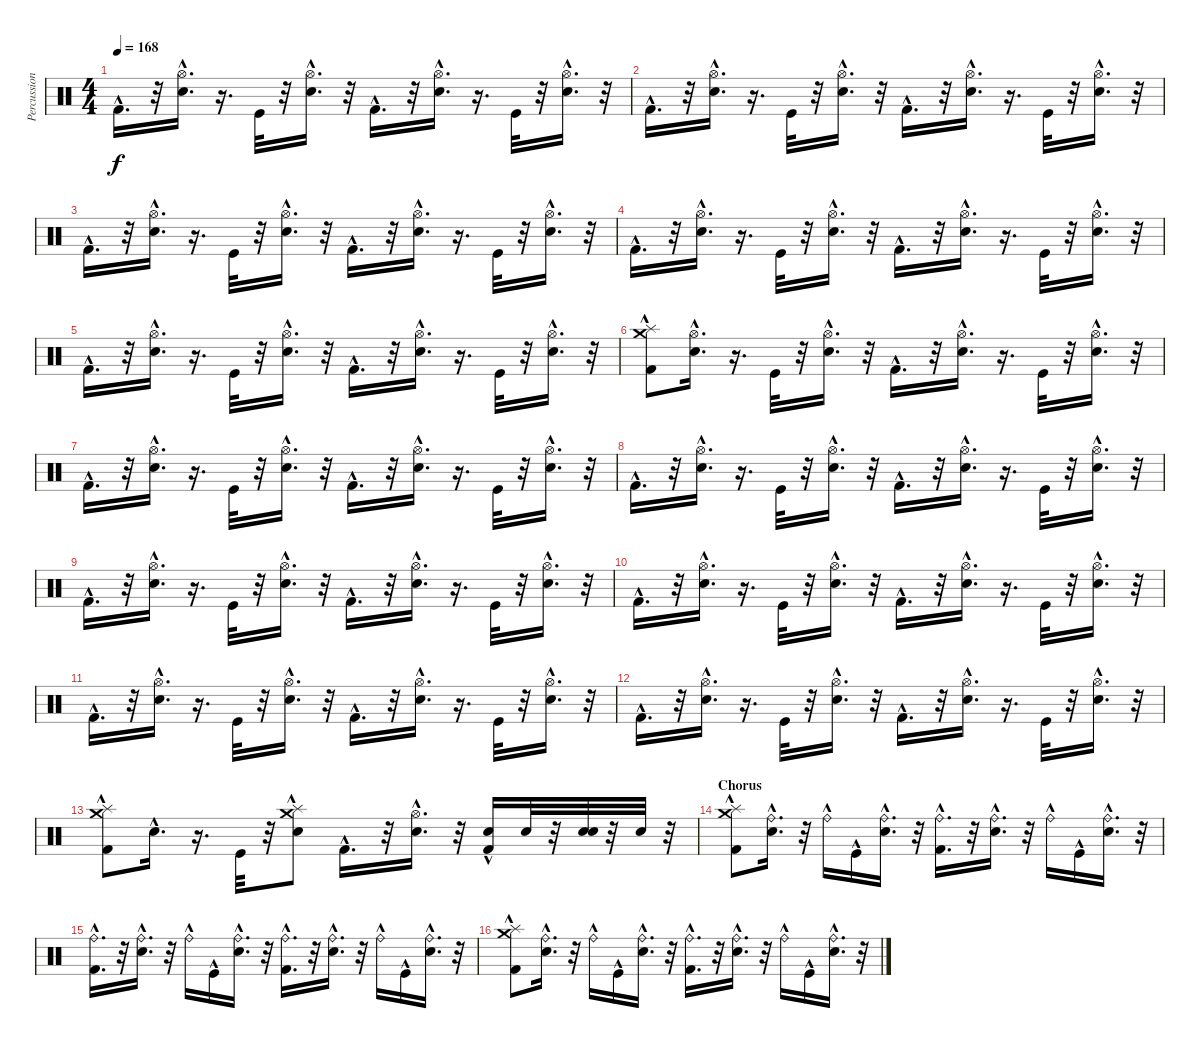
\track ("Percussion" "Percussion") {instrument percussion}
\staff {score}
\articulation defaults
\ts (4 4)
\tempo 168
\clef neutral
\ks c "Kick (hit) 2"{hac}.16{d dy f}
r.32 ("Electric Snare (hit)"{hac} "Hi-Hat (open)").16{d} r.16{d} "Kick (hit)".32 r.32 ("Electric Snare (hit)"{hac} "Hi-Hat (open)").16{d} r.32 "Kick (hit) 2"{hac}.16{d} r.32 ("Electric Snare (hit)"{hac} "Hi-Hat (open)").16{d} r.16{d} "Kick (hit)".32 r.32 ("Electric Snare (hit)"{hac} "Hi-Hat (open)").16{d} r.32 |
"Kick (hit) 2"{hac}.16{d} r.32 ("Electric Snare (hit)"{hac} "Hi-Hat (open)").16{d} r.16{d} "Kick (hit)".32 r.32 ("Electric Snare (hit)"{hac} "Hi-Hat (open)").16{d} r.32 "Kick (hit) 2"{hac}.16{d} r.32 ("Electric Snare (hit)"{hac} "Hi-Hat (open)").16{d} r.16{d} "Kick (hit)".32 r.32 ("Electric Snare (hit)"{hac} "Hi-Hat (open)").16{d} r.32 |
"Kick (hit) 2"{hac}.16{d} r.32 ("Electric Snare (hit)"{hac} "Hi-Hat (open)").16{d} r.16{d} "Kick (hit)".32 r.32 ("Electric Snare (hit)"{hac} "Hi-Hat (open)").16{d} r.32 "Kick (hit) 2"{hac}.16{d} r.32 ("Electric Snare (hit)"{hac} "Hi-Hat (open)").16{d} r.16{d} "Kick (hit)".32 r.32 ("Electric Snare (hit)"{hac} "Hi-Hat (open)").16{d} r.32 |
"Kick (hit) 2"{hac}.16{d} r.32 ("Electric Snare (hit)"{hac} "Hi-Hat (open)").16{d} r.16{d} "Kick (hit)".32 r.32 ("Electric Snare (hit)"{hac} "Hi-Hat (open)").16{d} r.32 "Kick (hit) 2"{hac}.16{d} r.32 ("Electric Snare (hit)"{hac} "Hi-Hat (open)").16{d} r.16{d} "Kick (hit)".32 r.32 ("Electric Snare (hit)"{hac} "Hi-Hat (open)").16{d} r.32 |
"Kick (hit) 2"{hac}.16{d} r.32 ("Electric Snare (hit)"{hac} "Hi-Hat (open)").16{d} r.16{d} "Kick (hit)".32 r.32 ("Electric Snare (hit)"{hac} "Hi-Hat (open)").16{d} r.32 "Kick (hit) 2"{hac}.16{d} r.32 ("Electric Snare (hit)"{hac} "Hi-Hat (open)").16{d} r.16{d} "Kick (hit)".32 r.32 ("Electric Snare (hit)"{hac} "Hi-Hat (open)").16{d} r.32 |
("Splash (hit)" "Crash medium (hit)" "Kick (hit) 2"{hac}).8 ("Electric Snare (hit)"{hac} "Hi-Hat (open)").16{d} r.16{d} "Kick (hit)".32 r.32 ("Electric Snare (hit)"{hac} "Hi-Hat (open)").16{d} r.32 "Kick (hit) 2"{hac}.16{d} r.32 ("Electric Snare (hit)"{hac} "Hi-Hat (open)").16{d} r.16{d} "Kick (hit)".32 r.32 ("Electric Snare (hit)"{hac} "Hi-Hat (open)").16{d} r.32 |
"Kick (hit) 2"{hac}.16{d} r.32 ("Electric Snare (hit)"{hac} "Hi-Hat (open)").16{d} r.16{d} "Kick (hit)".32 r.32 ("Electric Snare (hit)"{hac} "Hi-Hat (open)").16{d} r.32 "Kick (hit) 2"{hac}.16{d} r.32 ("Electric Snare (hit)"{hac} "Hi-Hat (open)").16{d} r.16{d} "Kick (hit)".32 r.32 ("Electric Snare (hit)"{hac} "Hi-Hat (open)").16{d} r.32 |
"Kick (hit) 2"{hac}.16{d} r.32 ("Electric Snare (hit)"{hac} "Hi-Hat (open)").16{d} r.16{d} "Kick (hit)".32 r.32 ("Electric Snare (hit)"{hac} "Hi-Hat (open)").16{d} r.32 "Kick (hit) 2"{hac}.16{d} r.32 ("Electric Snare (hit)"{hac} "Hi-Hat (open)").16{d} r.16{d} "Kick (hit)".32 r.32 ("Electric Snare (hit)"{hac} "Hi-Hat (open)").16{d} r.32 |
"Kick (hit) 2"{hac}.16{d} r.32 ("Electric Snare (hit)"{hac} "Hi-Hat (open)").16{d} r.16{d} "Kick (hit)".32 r.32 ("Electric Snare (hit)"{hac} "Hi-Hat (open)").16{d} r.32 "Kick (hit) 2"{hac}.16{d} r.32 ("Electric Snare (hit)"{hac} "Hi-Hat (open)").16{d} r.16{d} "Kick (hit)".32 r.32 ("Electric Snare (hit)"{hac} "Hi-Hat (open)").16{d} r.32 |
"Kick (hit) 2"{hac}.16{d} r.32 ("Electric Snare (hit)"{hac} "Hi-Hat (open)").16{d} r.16{d} "Kick (hit)".32 r.32 ("Electric Snare (hit)"{hac} "Hi-Hat (open)").16{d} r.32 "Kick (hit) 2"{hac}.16{d} r.32 ("Electric Snare (hit)"{hac} "Hi-Hat (open)").16{d} r.16{d} "Kick (hit)".32 r.32 ("Electric Snare (hit)"{hac} "Hi-Hat (open)").16{d} r.32 |
"Kick (hit) 2"{hac}.16{d} r.32 ("Electric Snare (hit)"{hac} "Hi-Hat (open)").16{d} r.16{d} "Kick (hit)".32 r.32 ("Electric Snare (hit)"{hac} "Hi-Hat (open)").16{d} r.32 "Kick (hit) 2"{hac}.16{d} r.32 ("Electric Snare (hit)"{hac} "Hi-Hat (open)").16{d} r.16{d} "Kick (hit)".32 r.32 ("Electric Snare (hit)"{hac} "Hi-Hat (open)").16{d} r.32 |
"Kick (hit) 2"{hac}.16{d} r.32 ("Electric Snare (hit)"{hac} "Hi-Hat (open)").16{d} r.16{d} "Kick (hit)".32 r.32 ("Electric Snare (hit)"{hac} "Hi-Hat (open)").16{d} r.32 "Kick (hit) 2"{hac}.16{d} r.32 ("Electric Snare (hit)"{hac} "Hi-Hat (open)").16{d} r.16{d} "Kick (hit)".32 r.32 ("Electric Snare (hit)"{hac} "Hi-Hat (open)").16{d} r.32 |
("Splash (hit)" "Crash medium (hit)" "Kick (hit) 2"{hac}).8 "Electric Snare (hit)"{hac}.16{d} r.16{d} "Kick (hit)".32 r.32 ("Splash (hit)" "Crash medium (hit)" "Electric Snare (hit)"{hac}).8 "Kick (hit) 2"{hac}.16{d} r.32 ("Electric Snare (hit)"{hac} "Hi-Hat (open)").16{d} r.32 ("Kick (hit) 2"{hac} "Electric Snare (hit)").16 "Electric Snare (hit)".32 r.32 ("Electric Snare (hit)" "Electric Snare (hit)").32 r.32 "Electric Snare (hit)".32 r.32 |
\section ("" "Chorus")
("Splash (hit)" "Crash medium (hit)" "Kick (hit) 2"{hac}).8 ("Ride (bell)"{hac} "Electric Snare (hit)"{hac}).16{d} r.32 "Ride (bell)"{hac}.16 "Kick (hit)"{hac}.16 ("Ride (bell)"{hac} "Electric Snare (hit)"{hac}).16{d} r.32 ("Ride (bell)"{hac} "Kick (hit) 2"{hac}).16{d} r.32 ("Ride (bell)"{hac} "Electric Snare (hit)"{hac}).16{d} r.32 "Ride (bell)"{hac}.16 "Kick (hit)"{hac}.16 ("Ride (bell)"{hac} "Electric Snare (hit)"{hac}).16{d} r.32 |
("Kick (hit) 2"{hac} "Ride (bell)"{hac}).16{d} r.32 ("Electric Snare (hit)"{hac} "Ride (bell)"{hac}).16{d} r.32 "Ride (bell)"{hac}.16 "Kick (hit)"{hac}.16 ("Electric Snare (hit)"{hac} "Ride (bell)"{hac}).16{d} r.32 ("Kick (hit) 2"{hac} "Ride (bell)"{hac}).16{d} r.32 ("Electric Snare (hit)"{hac} "Ride (bell)"{hac}).16{d} r.32 "Ride (bell)"{hac}.16 "Kick (hit)"{hac}.16 ("Electric Snare (hit)"{hac} "Ride (bell)"{hac}).16{d} r.32 |
("Kick (hit) 2"{hac} "Splash (hit)" "Crash medium (hit)").8 ("Electric Snare (hit)"{hac} "Ride (bell)"{hac}).16{d} r.32 "Ride (bell)"{hac}.16 "Kick (hit)"{hac}.16 ("Electric Snare (hit)"{hac} "Ride (bell)"{hac}).16{d} r.32 ("Kick (hit) 2"{hac} "Ride (bell)"{hac}).16{d} r.32 ("Electric Snare (hit)"{hac} "Ride (bell)"{hac}).16{d} r.32 "Ride (bell)"{hac}.16 "Kick (hit)"{hac}.16 ("Electric Snare (hit)"{hac} "Ride (bell)"{hac}).16{d} r.32
